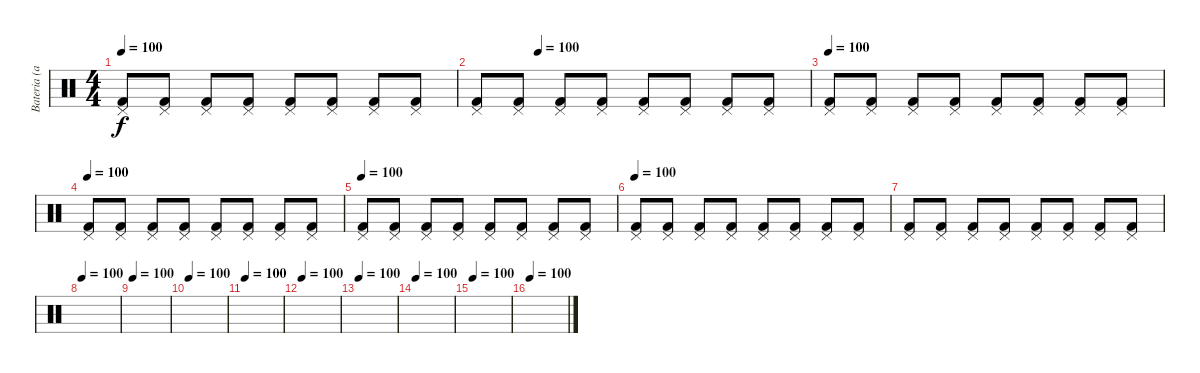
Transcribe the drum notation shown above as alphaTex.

\track ("Bateria (aux)" "Bateria (a") {instrument percussion}
\staff {score}
\articulation defaults
\ts (4 4)
\tempo 100
\clef neutral
\ks c
("Pedal Hi-Hat (hit)" "Kick (hit) 2").8{dy f} ("Pedal Hi-Hat (hit)" "Kick (hit) 2").8 ("Pedal Hi-Hat (hit)" "Kick (hit) 2").8 ("Pedal Hi-Hat (hit)" "Kick (hit) 2").8 ("Pedal Hi-Hat (hit)" "Kick (hit) 2").8 ("Pedal Hi-Hat (hit)" "Kick (hit) 2").8 ("Pedal Hi-Hat (hit)" "Kick (hit) 2").8 ("Pedal Hi-Hat (hit)" "Kick (hit) 2").8 |
\tempo (100 0.1875)
("Pedal Hi-Hat (hit)" "Kick (hit) 2").8 ("Pedal Hi-Hat (hit)" "Kick (hit) 2").8 ("Pedal Hi-Hat (hit)" "Kick (hit) 2").8 ("Pedal Hi-Hat (hit)" "Kick (hit) 2").8 ("Pedal Hi-Hat (hit)" "Kick (hit) 2").8 ("Pedal Hi-Hat (hit)" "Kick (hit) 2").8 ("Pedal Hi-Hat (hit)" "Kick (hit) 2").8 ("Pedal Hi-Hat (hit)" "Kick (hit) 2").8 |
\tempo 100
("Pedal Hi-Hat (hit)" "Kick (hit) 2").8 ("Pedal Hi-Hat (hit)" "Kick (hit) 2").8 ("Pedal Hi-Hat (hit)" "Kick (hit) 2").8 ("Pedal Hi-Hat (hit)" "Kick (hit) 2").8 ("Pedal Hi-Hat (hit)" "Kick (hit) 2").8 ("Pedal Hi-Hat (hit)" "Kick (hit) 2").8 ("Pedal Hi-Hat (hit)" "Kick (hit) 2").8 ("Pedal Hi-Hat (hit)" "Kick (hit) 2").8 |
\tempo 100
("Pedal Hi-Hat (hit)" "Kick (hit) 2").8 ("Pedal Hi-Hat (hit)" "Kick (hit) 2").8 ("Pedal Hi-Hat (hit)" "Kick (hit) 2").8 ("Pedal Hi-Hat (hit)" "Kick (hit) 2").8 ("Pedal Hi-Hat (hit)" "Kick (hit) 2").8 ("Pedal Hi-Hat (hit)" "Kick (hit) 2").8 ("Pedal Hi-Hat (hit)" "Kick (hit) 2").8 ("Pedal Hi-Hat (hit)" "Kick (hit) 2").8 |
\tempo 100
("Pedal Hi-Hat (hit)" "Kick (hit) 2").8 ("Pedal Hi-Hat (hit)" "Kick (hit) 2").8 ("Pedal Hi-Hat (hit)" "Kick (hit) 2").8 ("Pedal Hi-Hat (hit)" "Kick (hit) 2").8 ("Pedal Hi-Hat (hit)" "Kick (hit) 2").8 ("Pedal Hi-Hat (hit)" "Kick (hit) 2").8 ("Pedal Hi-Hat (hit)" "Kick (hit) 2").8 ("Pedal Hi-Hat (hit)" "Kick (hit) 2").8 |
\tempo 100
("Pedal Hi-Hat (hit)" "Kick (hit) 2").8 ("Pedal Hi-Hat (hit)" "Kick (hit) 2").8 ("Pedal Hi-Hat (hit)" "Kick (hit) 2").8 ("Pedal Hi-Hat (hit)" "Kick (hit) 2").8 ("Pedal Hi-Hat (hit)" "Kick (hit) 2").8 ("Pedal Hi-Hat (hit)" "Kick (hit) 2").8 ("Pedal Hi-Hat (hit)" "Kick (hit) 2").8 ("Pedal Hi-Hat (hit)" "Kick (hit) 2").8 |
("Pedal Hi-Hat (hit)" "Kick (hit) 2").8 ("Pedal Hi-Hat (hit)" "Kick (hit) 2").8 ("Pedal Hi-Hat (hit)" "Kick (hit) 2").8 ("Pedal Hi-Hat (hit)" "Kick (hit) 2").8 ("Pedal Hi-Hat (hit)" "Kick (hit) 2").8 ("Pedal Hi-Hat (hit)" "Kick (hit) 2").8 ("Pedal Hi-Hat (hit)" "Kick (hit) 2").8 ("Pedal Hi-Hat (hit)" "Kick (hit) 2").8 |
\tempo 100
|
\tempo 100
|
\tempo 100
|
\tempo 100
|
\tempo 100
|
\tempo 100
|
\tempo 100
|
\tempo 100
|
\tempo 100
